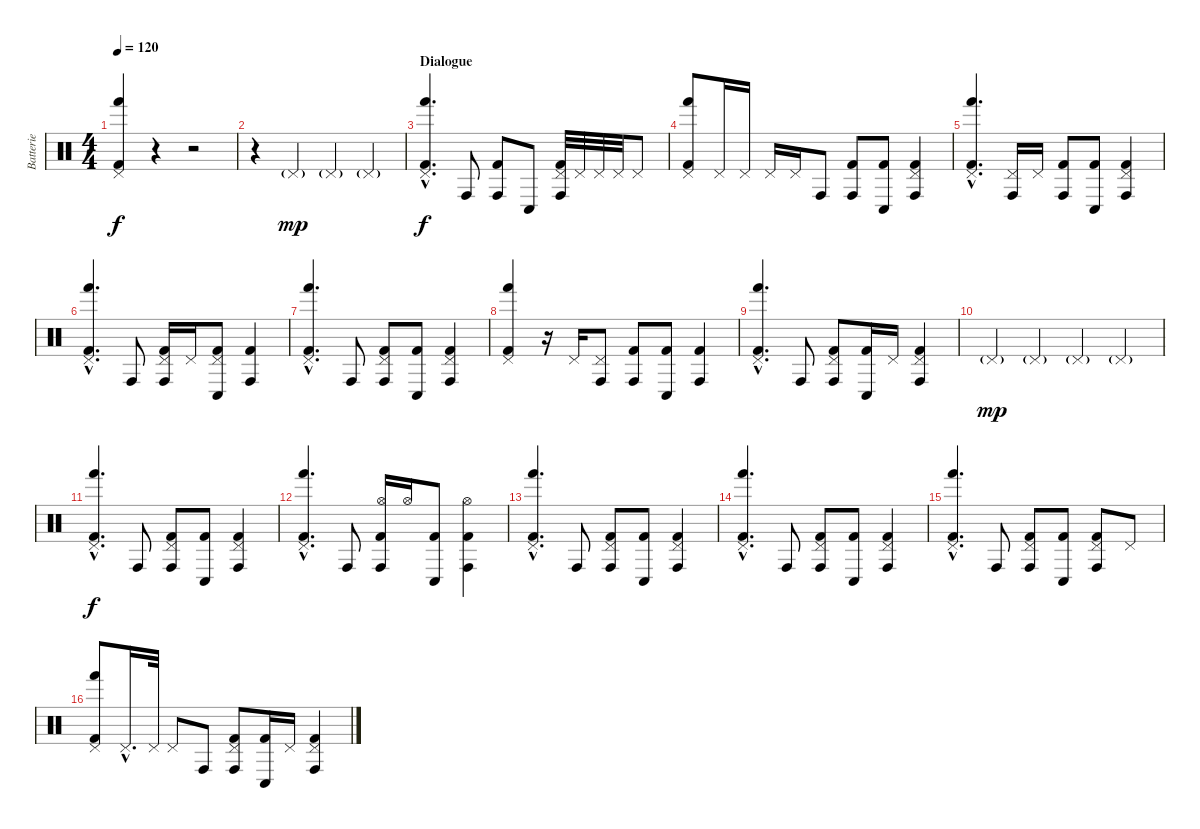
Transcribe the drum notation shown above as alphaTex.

\track ("Batterie" "Batterie") {instrument percussion}
\staff {score}
\articulation defaults
\ts (4 4)
\tempo 120
\clef neutral
\ks c
("Pedal Hi-Hat (hit)" "Hand (hit)" "Kick (hit) 2").4{dy f} r.4 r.2 |
r.4 "Pedal Hi-Hat (hit)"{g}.4{dy mp} "Pedal Hi-Hat (hit)"{g}.4 "Pedal Hi-Hat (hit)"{g}.4 |
\section ("" "Dialogue")
("Pedal Hi-Hat (hit)"{hac} "Hand (hit)"{hac} "Kick (hit) 2"{hac}).4{d dy f} "Conga high (hit)".8 ("Conga high (hit)" "Kick (hit) 2").8 "Conga low (hit)".8 ("Pedal Hi-Hat (hit)" "Conga high (hit)" "Kick (hit) 2").32 "Pedal Hi-Hat (hit)".32 "Pedal Hi-Hat (hit)".32 "Pedal Hi-Hat (hit)".32 "Pedal Hi-Hat (hit)".8 |
("Pedal Hi-Hat (hit)" "Hand (hit)" "Kick (hit) 2").8 "Pedal Hi-Hat (hit)".16 "Pedal Hi-Hat (hit)".16 "Pedal Hi-Hat (hit)".16 "Pedal Hi-Hat (hit)".16 "Conga high (hit)".8 ("Conga high (hit)" "Kick (hit) 2").8 ("Conga low (hit)" "Kick (hit) 2").8 ("Pedal Hi-Hat (hit)" "Conga high (hit)" "Kick (hit) 2").4 |
("Pedal Hi-Hat (hit)"{hac} "Hand (hit)"{hac} "Kick (hit) 2"{hac}).4{d} ("Pedal Hi-Hat (hit)" "Conga high (hit)").16 "Pedal Hi-Hat (hit)".16 ("Conga high (hit)" "Kick (hit) 2").8 ("Conga low (hit)" "Kick (hit) 2").8 ("Pedal Hi-Hat (hit)" "Conga high (hit)" "Kick (hit) 2").4 |
("Pedal Hi-Hat (hit)"{hac} "Hand (hit)"{hac} "Kick (hit) 2"{hac}).4{d} "Conga high (hit)".8 ("Pedal Hi-Hat (hit)" "Conga high (hit)" "Kick (hit) 2").16 "Pedal Hi-Hat (hit)".16 ("Pedal Hi-Hat (hit)" "Conga low (hit)" "Kick (hit) 2").8 ("Conga high (hit)" "Kick (hit) 2").4 |
("Pedal Hi-Hat (hit)"{hac} "Hand (hit)"{hac} "Kick (hit) 2"{hac}).4{d} "Conga high (hit)".8 ("Pedal Hi-Hat (hit)" "Conga high (hit)" "Kick (hit) 2").8 ("Conga low (hit)" "Kick (hit) 2").8 ("Pedal Hi-Hat (hit)" "Conga high (hit)" "Kick (hit) 2").4 |
("Pedal Hi-Hat (hit)" "Hand (hit)" "Kick (hit) 2").4 r.16 "Pedal Hi-Hat (hit)".16 ("Pedal Hi-Hat (hit)" "Conga high (hit)").8 ("Conga high (hit)" "Kick (hit) 2").8 ("Conga low (hit)" "Kick (hit) 2").8 ("Conga high (hit)" "Kick (hit) 2").4 |
("Pedal Hi-Hat (hit)"{hac} "Hand (hit)"{hac} "Kick (hit) 2"{hac}).4{d} "Conga high (hit)".8 ("Pedal Hi-Hat (hit)" "Conga high (hit)" "Kick (hit) 2").8 ("Conga low (hit)" "Kick (hit) 2").16 "Pedal Hi-Hat (hit)".16 ("Pedal Hi-Hat (hit)" "Conga high (hit)" "Kick (hit) 2").4 |
"Pedal Hi-Hat (hit)"{g}.4{dy mp} "Pedal Hi-Hat (hit)"{g}.4 "Pedal Hi-Hat (hit)"{g}.4 "Pedal Hi-Hat (hit)"{g}.4 |
("Pedal Hi-Hat (hit)"{hac} "Hand (hit)"{hac} "Kick (hit) 2"{hac}).4{d dy f} "Conga high (hit)".8 ("Pedal Hi-Hat (hit)" "Conga high (hit)" "Kick (hit) 2").8 ("Conga low (hit)" "Kick (hit) 2").8 ("Pedal Hi-Hat (hit)" "Conga high (hit)" "Kick (hit) 2").4 |
("Pedal Hi-Hat (hit)"{hac} "Hand (hit)"{hac} "Kick (hit) 2"{hac}).4{d} "Conga high (hit)".8 ("Hi-Hat (open)" "Conga high (hit)" "Kick (hit) 2").16 "Hi-Hat (open)".16 ("Conga low (hit)" "Kick (hit) 2").8 ("Hi-Hat (open)" "Conga high (hit)" "Kick (hit) 2").4 |
("Pedal Hi-Hat (hit)"{hac} "Hand (hit)"{hac} "Kick (hit) 2"{hac}).4{d} "Conga high (hit)".8 ("Pedal Hi-Hat (hit)" "Conga high (hit)" "Kick (hit) 2").8 ("Conga low (hit)" "Kick (hit) 2").8 ("Pedal Hi-Hat (hit)" "Conga high (hit)" "Kick (hit) 2").4 |
("Pedal Hi-Hat (hit)"{hac} "Hand (hit)"{hac} "Kick (hit) 2"{hac}).4{d} "Conga high (hit)".8 ("Pedal Hi-Hat (hit)" "Conga high (hit)" "Kick (hit) 2").8 ("Conga low (hit)" "Kick (hit) 2").8 ("Pedal Hi-Hat (hit)" "Conga high (hit)" "Kick (hit) 2").4 |
("Pedal Hi-Hat (hit)"{hac} "Hand (hit)"{hac} "Kick (hit) 2"{hac}).4{d} "Conga high (hit)".8 ("Pedal Hi-Hat (hit)" "Conga high (hit)" "Kick (hit) 2").8 ("Conga low (hit)" "Kick (hit) 2").8 ("Pedal Hi-Hat (hit)" "Conga high (hit)" "Kick (hit) 2").8 "Pedal Hi-Hat (hit)".8 |
("Pedal Hi-Hat (hit)" "Hand (hit)" "Kick (hit) 2").8 "Pedal Hi-Hat (hit)"{hac}.16{d} "Pedal Hi-Hat (hit)".32 "Pedal Hi-Hat (hit)".8 "Conga high (hit)".8 ("Pedal Hi-Hat (hit)" "Conga high (hit)" "Kick (hit) 2").8 ("Conga low (hit)" "Kick (hit) 2").16 "Pedal Hi-Hat (hit)".16 ("Pedal Hi-Hat (hit)" "Conga high (hit)" "Kick (hit) 2").4
